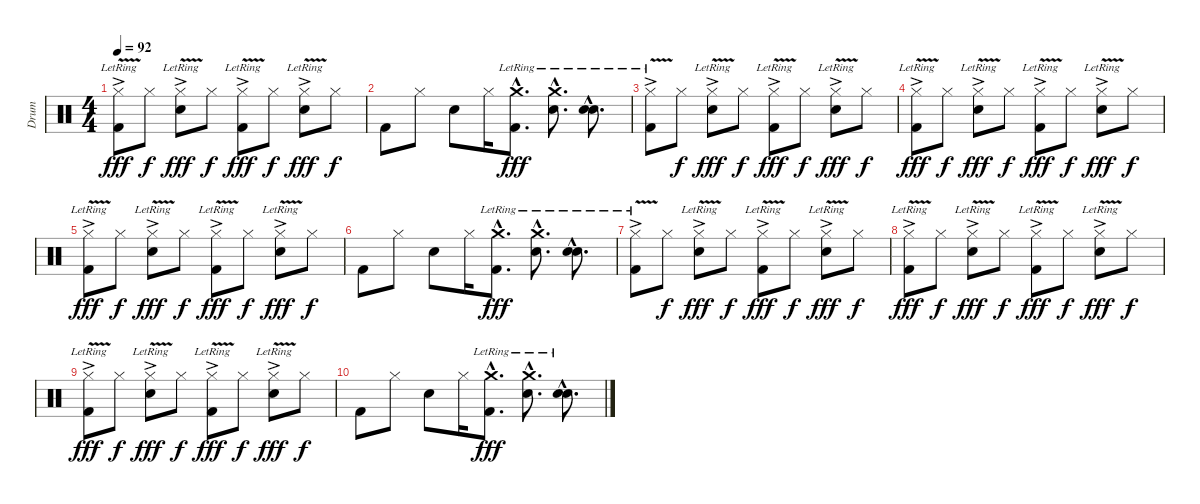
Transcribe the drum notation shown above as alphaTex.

\track ("Drum" "Drum") {instrument percussion}
\staff {score}
\articulation defaults
\ts (4 4)
\tempo 92
\clef neutral
\ks c
("Hi-Hat (closed)" "Kick (hit) 2"{v ac lr}).8{dy fff} "Hi-Hat (closed)".8{dy f} ("Hi-Hat (closed)" "Electric Snare (hit)"{v ac lr}).8{dy fff} "Hi-Hat (closed)".8{dy f} ("Hi-Hat (closed)" "Kick (hit) 2"{v ac lr}).8{dy fff} "Hi-Hat (closed)".8{dy f} ("Hi-Hat (closed)" "Electric Snare (hit)"{v ac lr}).8{dy fff} "Hi-Hat (closed)".8{dy f} |
"Kick (hit) 2".8 "Hi-Hat (closed)".8 "Electric Snare (hit)".8 "Hi-Hat (closed)".16 ("Crash medium (hit)"{hac lr} "Kick (hit) 2"{hac lr}).8{d dy fff} ("Crash medium (hit)"{hac lr} "Electric Snare (hit)"{hac lr}).8{d} ("Electric Snare (hit)"{nh hac lr} "Electric Snare (hit)"{nh hac lr}).8{d} |
("Hi-Hat (closed)" "Kick (hit) 2"{v ac lr}).8 "Hi-Hat (closed)".8{dy f} ("Hi-Hat (closed)" "Electric Snare (hit)"{v ac lr}).8{dy fff} "Hi-Hat (closed)".8{dy f} ("Hi-Hat (closed)" "Kick (hit) 2"{v ac lr}).8{dy fff} "Hi-Hat (closed)".8{dy f} ("Hi-Hat (closed)" "Electric Snare (hit)"{v ac lr}).8{dy fff} "Hi-Hat (closed)".8{dy f} |
("Hi-Hat (closed)" "Kick (hit) 2"{v ac lr}).8{dy fff} "Hi-Hat (closed)".8{dy f} ("Hi-Hat (closed)" "Electric Snare (hit)"{v ac lr}).8{dy fff} "Hi-Hat (closed)".8{dy f} ("Hi-Hat (closed)" "Kick (hit) 2"{v ac lr}).8{dy fff} "Hi-Hat (closed)".8{dy f} ("Hi-Hat (closed)" "Electric Snare (hit)"{v ac lr}).8{dy fff} "Hi-Hat (closed)".8{dy f} |
("Hi-Hat (closed)" "Kick (hit) 2"{v ac lr}).8{dy fff} "Hi-Hat (closed)".8{dy f} ("Hi-Hat (closed)" "Electric Snare (hit)"{v ac lr}).8{dy fff} "Hi-Hat (closed)".8{dy f} ("Hi-Hat (closed)" "Kick (hit) 2"{v ac lr}).8{dy fff} "Hi-Hat (closed)".8{dy f} ("Hi-Hat (closed)" "Electric Snare (hit)"{v ac lr}).8{dy fff} "Hi-Hat (closed)".8{dy f} |
"Kick (hit) 2".8 "Hi-Hat (closed)".8 "Electric Snare (hit)".8 "Hi-Hat (closed)".16 ("Crash medium (hit)"{hac lr} "Kick (hit) 2"{hac lr}).8{d dy fff} ("Crash medium (hit)"{hac lr} "Electric Snare (hit)"{hac lr}).8{d} ("Electric Snare (hit)"{nh hac lr} "Electric Snare (hit)"{nh hac lr}).8{d} |
("Hi-Hat (closed)" "Kick (hit) 2"{v ac lr}).8 "Hi-Hat (closed)".8{dy f} ("Hi-Hat (closed)" "Electric Snare (hit)"{v ac lr}).8{dy fff} "Hi-Hat (closed)".8{dy f} ("Hi-Hat (closed)" "Kick (hit) 2"{v ac lr}).8{dy fff} "Hi-Hat (closed)".8{dy f} ("Hi-Hat (closed)" "Electric Snare (hit)"{v ac lr}).8{dy fff} "Hi-Hat (closed)".8{dy f} |
("Hi-Hat (closed)" "Kick (hit) 2"{v ac lr}).8{dy fff} "Hi-Hat (closed)".8{dy f} ("Hi-Hat (closed)" "Electric Snare (hit)"{v ac lr}).8{dy fff} "Hi-Hat (closed)".8{dy f} ("Hi-Hat (closed)" "Kick (hit) 2"{v ac lr}).8{dy fff} "Hi-Hat (closed)".8{dy f} ("Hi-Hat (closed)" "Electric Snare (hit)"{v ac lr}).8{dy fff} "Hi-Hat (closed)".8{dy f} |
("Hi-Hat (closed)" "Kick (hit) 2"{v ac lr}).8{dy fff} "Hi-Hat (closed)".8{dy f} ("Hi-Hat (closed)" "Electric Snare (hit)"{v ac lr}).8{dy fff} "Hi-Hat (closed)".8{dy f} ("Hi-Hat (closed)" "Kick (hit) 2"{v ac lr}).8{dy fff} "Hi-Hat (closed)".8{dy f} ("Hi-Hat (closed)" "Electric Snare (hit)"{v ac lr}).8{dy fff} "Hi-Hat (closed)".8{dy f} |
"Kick (hit) 2".8 "Hi-Hat (closed)".8 "Electric Snare (hit)".8 "Hi-Hat (closed)".16 ("Crash medium (hit)"{hac lr} "Kick (hit) 2"{hac lr}).8{d dy fff} ("Crash medium (hit)"{hac lr} "Electric Snare (hit)"{hac lr}).8{d} ("Electric Snare (hit)"{nh hac lr} "Electric Snare (hit)"{nh hac lr}).8{d}
